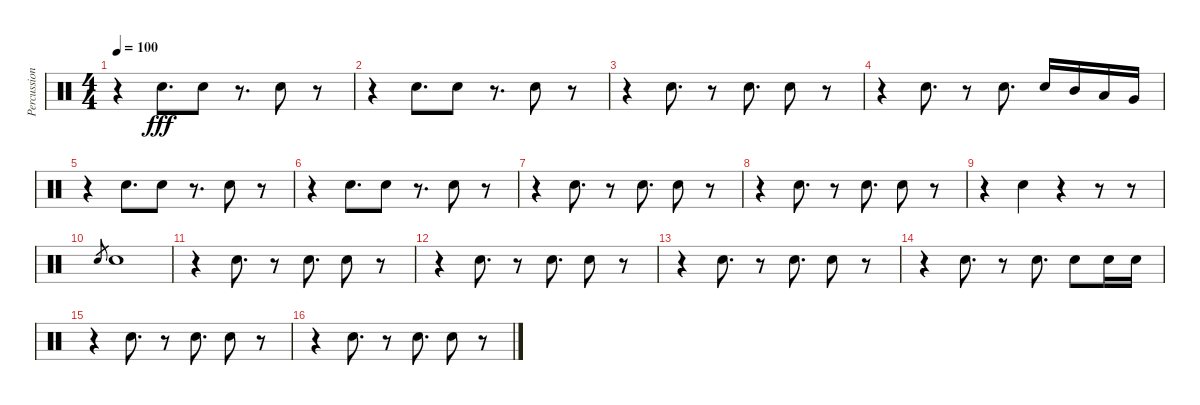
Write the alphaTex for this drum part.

\track ("Percussion" "Percussion") {instrument percussion}
\staff {score}
\articulation defaults
\ts (4 4)
\tempo 100
\clef neutral
\ks c
r.4{dy fff} "Snare (hit) 2".8{d} "Snare (hit) 2".8 r.8{d} "Snare (hit) 2".8 r.8 |
r.4 "Snare (hit) 2".8{d} "Snare (hit) 2".8 r.8{d} "Snare (hit) 2".8 r.8 |
r.4 "Snare (hit) 2".8{d} r.8 "Snare (hit) 2".8{d} "Snare (hit) 2".8 r.8 |
r.4 "Snare (hit) 2".8{d} r.8 "Snare (hit) 2".8{d} "Snare (hit) 2".16 "Mid Tom (hit)".16 "Low Tom (hit)".16 "Very Low Tom (hit)".16 |
r.4 "Snare (hit) 2".8{d} "Snare (hit) 2".8 r.8{d} "Snare (hit) 2".8 r.8 |
r.4 "Snare (hit) 2".8{d} "Snare (hit) 2".8 r.8{d} "Snare (hit) 2".8 r.8 |
r.4 "Snare (hit) 2".8{d} r.8 "Snare (hit) 2".8{d} "Snare (hit) 2".8 r.8 |
r.4 "Snare (hit) 2".8{d} r.8 "Snare (hit) 2".8{d} "Snare (hit) 2".8 r.8 |
r.4 "Snare (hit) 2".4 r.4 r.8 r.8 |
"Snare (hit) 2".8{gr} "Snare (hit) 2".1 |
r.4 "Snare (hit) 2".8{d} r.8 "Snare (hit) 2".8{d} "Snare (hit) 2".8 r.8 |
r.4 "Snare (hit) 2".8{d} r.8 "Snare (hit) 2".8{d} "Snare (hit) 2".8 r.8 |
r.4 "Snare (hit) 2".8{d} r.8 "Snare (hit) 2".8{d} "Snare (hit) 2".8 r.8 |
r.4 "Snare (hit) 2".8{d} r.8 "Snare (hit) 2".8{d} "Snare (hit) 2".8 "Snare (hit) 2".16 "Snare (hit) 2".16 |
r.4 "Snare (hit) 2".8{d} r.8 "Snare (hit) 2".8{d} "Snare (hit) 2".8 r.8 |
r.4 "Snare (hit) 2".8{d} r.8 "Snare (hit) 2".8{d} "Snare (hit) 2".8 r.8
